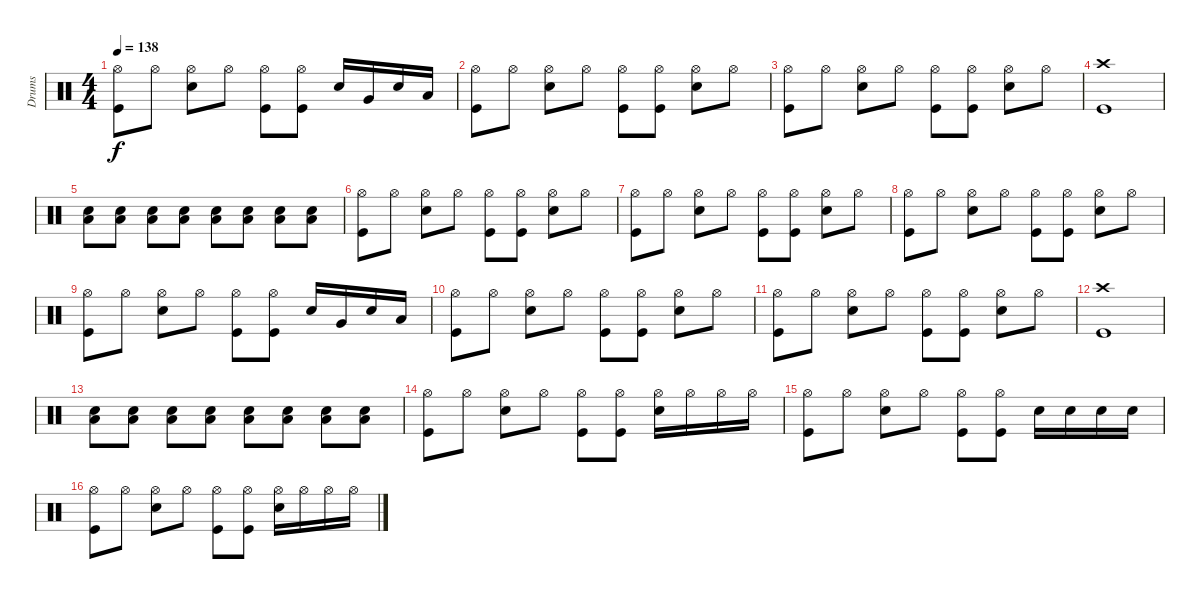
\track ("Drums" "Drums") {instrument percussion}
\staff {score}
\articulation defaults
\ts (4 4)
\tempo 138
\clef neutral
\ks c
("Hi-Hat (open)" "Kick (hit)").8{dy f} "Hi-Hat (open)".8 ("Hi-Hat (open)" "Snare (hit) 2").8 "Hi-Hat (open)".8 ("Hi-Hat (open)" "Kick (hit)").8 ("Hi-Hat (open)" "Kick (hit)").8 "Snare (hit) 2".16 "Very Low Tom (hit)".16 "Snare (hit) 2".16 "Low Tom (hit)".16 |
("Hi-Hat (open)" "Kick (hit)").8 "Hi-Hat (open)".8 ("Hi-Hat (open)" "Snare (hit) 2").8 "Hi-Hat (open)".8 ("Hi-Hat (open)" "Kick (hit)").8 ("Hi-Hat (open)" "Kick (hit)").8 ("Hi-Hat (open)" "Snare (hit) 2").8 "Hi-Hat (open)".8 |
("Hi-Hat (open)" "Kick (hit)").8 "Hi-Hat (open)".8 ("Hi-Hat (open)" "Snare (hit) 2").8 "Hi-Hat (open)".8 ("Hi-Hat (open)" "Kick (hit)").8 ("Hi-Hat (open)" "Kick (hit)").8 ("Hi-Hat (open)" "Snare (hit) 2").8 "Hi-Hat (open)".8 |
("Crash high (hit)" "Kick (hit)").1 |
("Snare (hit) 2" "Low Floor Tom (hit)").8 ("Snare (hit) 2" "Low Floor Tom (hit)").8 ("Snare (hit) 2" "Low Floor Tom (hit)").8 ("Snare (hit) 2" "Low Floor Tom (hit)").8 ("Snare (hit) 2" "Low Floor Tom (hit)").8 ("Snare (hit) 2" "Low Floor Tom (hit)").8 ("Snare (hit) 2" "Low Floor Tom (hit)").8 ("Snare (hit) 2" "Low Floor Tom (hit)").8 |
("Hi-Hat (open)" "Kick (hit)").8 "Hi-Hat (open)".8 ("Hi-Hat (open)" "Snare (hit) 2").8 "Hi-Hat (open)".8 ("Hi-Hat (open)" "Kick (hit)").8 ("Hi-Hat (open)" "Kick (hit)").8 ("Hi-Hat (open)" "Snare (hit) 2").8 "Hi-Hat (open)".8 |
("Hi-Hat (open)" "Kick (hit)").8 "Hi-Hat (open)".8 ("Hi-Hat (open)" "Snare (hit) 2").8 "Hi-Hat (open)".8 ("Hi-Hat (open)" "Kick (hit)").8 ("Hi-Hat (open)" "Kick (hit)").8 ("Hi-Hat (open)" "Snare (hit) 2").8 "Hi-Hat (open)".8 |
("Hi-Hat (open)" "Kick (hit)").8 "Hi-Hat (open)".8 ("Hi-Hat (open)" "Snare (hit) 2").8 "Hi-Hat (open)".8 ("Hi-Hat (open)" "Kick (hit)").8 ("Hi-Hat (open)" "Kick (hit)").8 ("Hi-Hat (open)" "Snare (hit) 2").8 "Hi-Hat (open)".8 |
("Hi-Hat (open)" "Kick (hit)").8 "Hi-Hat (open)".8 ("Hi-Hat (open)" "Snare (hit) 2").8 "Hi-Hat (open)".8 ("Hi-Hat (open)" "Kick (hit)").8 ("Hi-Hat (open)" "Kick (hit)").8 "Snare (hit) 2".16 "Very Low Tom (hit)".16 "Snare (hit) 2".16 "Low Tom (hit)".16 |
("Hi-Hat (open)" "Kick (hit)").8 "Hi-Hat (open)".8 ("Hi-Hat (open)" "Snare (hit) 2").8 "Hi-Hat (open)".8 ("Hi-Hat (open)" "Kick (hit)").8 ("Hi-Hat (open)" "Kick (hit)").8 ("Hi-Hat (open)" "Snare (hit) 2").8 "Hi-Hat (open)".8 |
("Hi-Hat (open)" "Kick (hit)").8 "Hi-Hat (open)".8 ("Hi-Hat (open)" "Snare (hit) 2").8 "Hi-Hat (open)".8 ("Hi-Hat (open)" "Kick (hit)").8 ("Hi-Hat (open)" "Kick (hit)").8 ("Hi-Hat (open)" "Snare (hit) 2").8 "Hi-Hat (open)".8 |
("Crash high (hit)" "Kick (hit)").1 |
("Snare (hit) 2" "Low Floor Tom (hit)").8 ("Snare (hit) 2" "Low Floor Tom (hit)").8 ("Snare (hit) 2" "Low Floor Tom (hit)").8 ("Snare (hit) 2" "Low Floor Tom (hit)").8 ("Snare (hit) 2" "Low Floor Tom (hit)").8 ("Snare (hit) 2" "Low Floor Tom (hit)").8 ("Snare (hit) 2" "Low Floor Tom (hit)").8 ("Snare (hit) 2" "Low Floor Tom (hit)").8 |
("Hi-Hat (open)" "Kick (hit)").8 "Hi-Hat (open)".8 ("Hi-Hat (open)" "Snare (hit) 2").8 "Hi-Hat (open)".8 ("Hi-Hat (open)" "Kick (hit)").8 ("Hi-Hat (open)" "Kick (hit)").8 ("Hi-Hat (open)" "Snare (hit) 2").16 "Hi-Hat (open)".16 "Hi-Hat (open)".16 "Hi-Hat (open)".16 |
("Hi-Hat (open)" "Kick (hit)").8 "Hi-Hat (open)".8 ("Hi-Hat (open)" "Snare (hit) 2").8 "Hi-Hat (open)".8 ("Hi-Hat (open)" "Kick (hit)").8 ("Hi-Hat (open)" "Kick (hit)").8 "Snare (hit) 2".16 "Snare (hit) 2".16 "Snare (hit) 2".16 "Snare (hit) 2".16 |
("Hi-Hat (open)" "Kick (hit)").8 "Hi-Hat (open)".8 ("Hi-Hat (open)" "Snare (hit) 2").8 "Hi-Hat (open)".8 ("Hi-Hat (open)" "Kick (hit)").8 ("Hi-Hat (open)" "Kick (hit)").8 ("Hi-Hat (open)" "Snare (hit) 2").16 "Hi-Hat (open)".16 "Hi-Hat (open)".16 "Hi-Hat (open)".16
